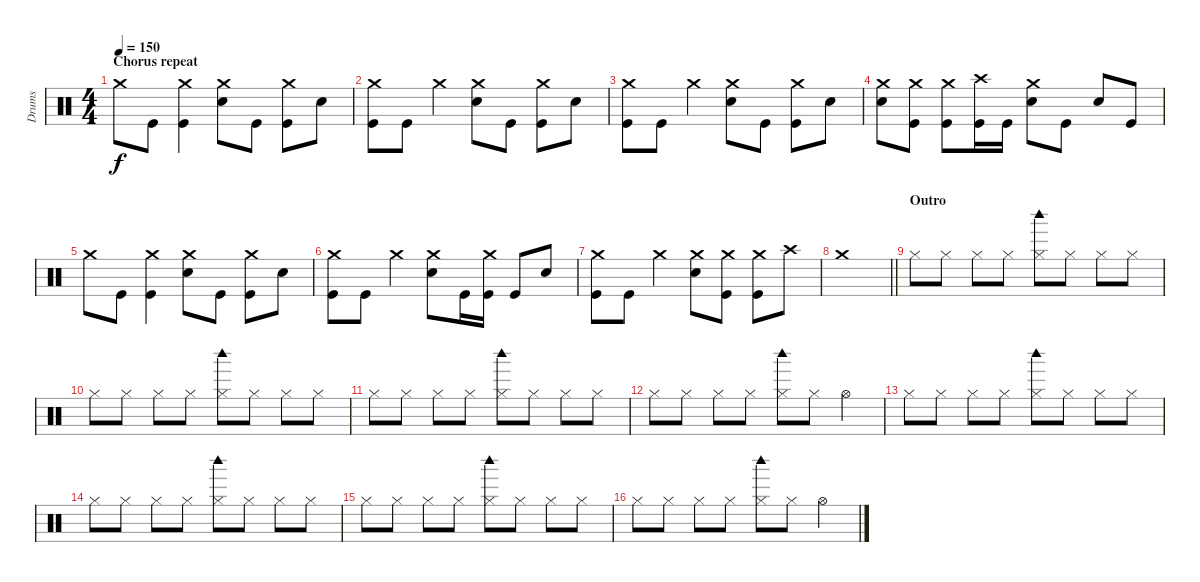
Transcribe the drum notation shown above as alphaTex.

\track ("Drums" "Drums") {instrument percussion}
\staff {score}
\articulation defaults
\ts (4 4)
\section ("" "Chorus repeat")
\tempo 150
\clef neutral
\ks c "Crash medium (hit)".8{dy f} "Kick (hit)".8
("Crash medium (hit)" "Kick (hit)").4 ("Crash medium (hit)" "Snare (hit) 2").8 "Kick (hit)".8 ("Crash medium (hit)" "Kick (hit)").8 "Snare (hit) 2".8 |
("Crash medium (hit)" "Kick (hit)").8 "Kick (hit)".8 "Crash medium (hit)".4 ("Crash medium (hit)" "Snare (hit) 2").8 "Kick (hit)".8 ("Crash medium (hit)" "Kick (hit)").8 "Snare (hit) 2".8 |
("Crash medium (hit)" "Kick (hit)").8 "Kick (hit)".8 "Crash medium (hit)".4 ("Crash medium (hit)" "Snare (hit) 2").8 "Kick (hit)".8 ("Crash medium (hit)" "Kick (hit)").8 "Snare (hit) 2".8 |
("Crash medium (hit)" "Snare (hit) 2").8 ("Crash medium (hit)" "Kick (hit)").8 ("Crash medium (hit)" "Kick (hit)").8 ("Crash high (hit)" "Kick (hit)").16 "Kick (hit)".16 ("Crash medium (hit)" "Snare (hit) 2").8 "Kick (hit)".8 "Snare (hit) 2".8 "Kick (hit)".8 |
"Crash medium (hit)".8 "Kick (hit)".8 ("Crash medium (hit)" "Kick (hit)").4 ("Crash medium (hit)" "Snare (hit) 2").8 "Kick (hit)".8 ("Crash medium (hit)" "Kick (hit)").8 "Snare (hit) 2".8 |
("Crash medium (hit)" "Kick (hit)").8 "Kick (hit)".8 "Crash medium (hit)".4 ("Crash medium (hit)" "Snare (hit) 2").8 "Kick (hit)".16 ("Crash medium (hit)" "Kick (hit)").16 "Kick (hit)".8 "Snare (hit) 2".8 |
("Crash medium (hit)" "Kick (hit)").8 "Kick (hit)".8 "Crash medium (hit)".4 ("Crash medium (hit)" "Snare (hit) 2").8 ("Crash medium (hit)" "Kick (hit)").8 ("Crash medium (hit)" "Kick (hit)").8 "Crash high (hit)".8 |
\barLineRight lightlight "Crash medium (hit)".1
|
\section ("" "Outro")
"Hi-Hat (closed)".8 "Hi-Hat (closed)".8 "Hi-Hat (closed)".8 "Hi-Hat (closed)".8 ("Hi-Hat (closed)" "Woodblock high (hit)").8 "Hi-Hat (closed)".8 "Hi-Hat (closed)".8 "Hi-Hat (closed)".8 |
"Hi-Hat (closed)".8 "Hi-Hat (closed)".8 "Hi-Hat (closed)".8 "Hi-Hat (closed)".8 ("Hi-Hat (closed)" "Woodblock high (hit)").8 "Hi-Hat (closed)".8 "Hi-Hat (closed)".8 "Hi-Hat (closed)".8 |
"Hi-Hat (closed)".8 "Hi-Hat (closed)".8 "Hi-Hat (closed)".8 "Hi-Hat (closed)".8 ("Hi-Hat (closed)" "Woodblock high (hit)").8 "Hi-Hat (closed)".8 "Hi-Hat (closed)".8 "Hi-Hat (closed)".8 |
"Hi-Hat (closed)".8 "Hi-Hat (closed)".8 "Hi-Hat (closed)".8 "Hi-Hat (closed)".8 ("Hi-Hat (closed)" "Woodblock high (hit)").8 "Hi-Hat (closed)".8 "Hi-Hat (open)".4 |
"Hi-Hat (closed)".8 "Hi-Hat (closed)".8 "Hi-Hat (closed)".8 "Hi-Hat (closed)".8 ("Hi-Hat (closed)" "Woodblock high (hit)").8 "Hi-Hat (closed)".8 "Hi-Hat (closed)".8 "Hi-Hat (closed)".8 |
"Hi-Hat (closed)".8 "Hi-Hat (closed)".8 "Hi-Hat (closed)".8 "Hi-Hat (closed)".8 ("Hi-Hat (closed)" "Woodblock high (hit)").8 "Hi-Hat (closed)".8 "Hi-Hat (closed)".8 "Hi-Hat (closed)".8 |
"Hi-Hat (closed)".8 "Hi-Hat (closed)".8 "Hi-Hat (closed)".8 "Hi-Hat (closed)".8 ("Hi-Hat (closed)" "Woodblock high (hit)").8 "Hi-Hat (closed)".8 "Hi-Hat (closed)".8 "Hi-Hat (closed)".8 |
"Hi-Hat (closed)".8 "Hi-Hat (closed)".8 "Hi-Hat (closed)".8 "Hi-Hat (closed)".8 ("Hi-Hat (closed)" "Woodblock high (hit)").8 "Hi-Hat (closed)".8 "Hi-Hat (open)".4
